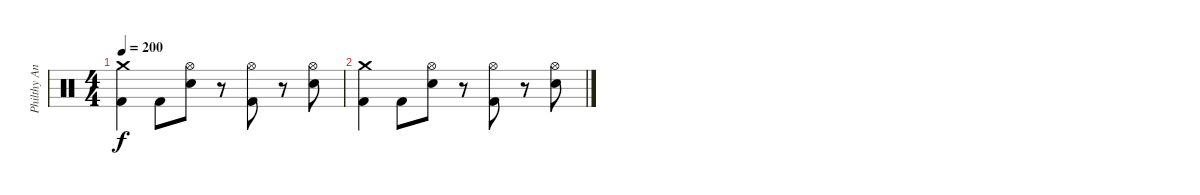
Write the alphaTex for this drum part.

\track ("Philthy Animal Taylor" "Philthy An") {instrument percussion}
\staff {score}
\articulation defaults
\ts (4 4)
\tempo 200
\clef neutral
\ks c
("Crash medium (hit)" "Kick (hit) 2").4{dy f} "Kick (hit) 2".8 ("Hi-Hat (open)" "Electric Snare (hit)").8 r.8 ("Hi-Hat (open)" "Kick (hit) 2").8 r.8 ("Hi-Hat (open)" "Electric Snare (hit)").8 |
("Crash medium (hit)" "Kick (hit) 2").4 "Kick (hit) 2".8 ("Hi-Hat (open)" "Electric Snare (hit)").8 r.8 ("Hi-Hat (open)" "Kick (hit) 2").8 r.8 ("Hi-Hat (open)" "Electric Snare (hit)").8
